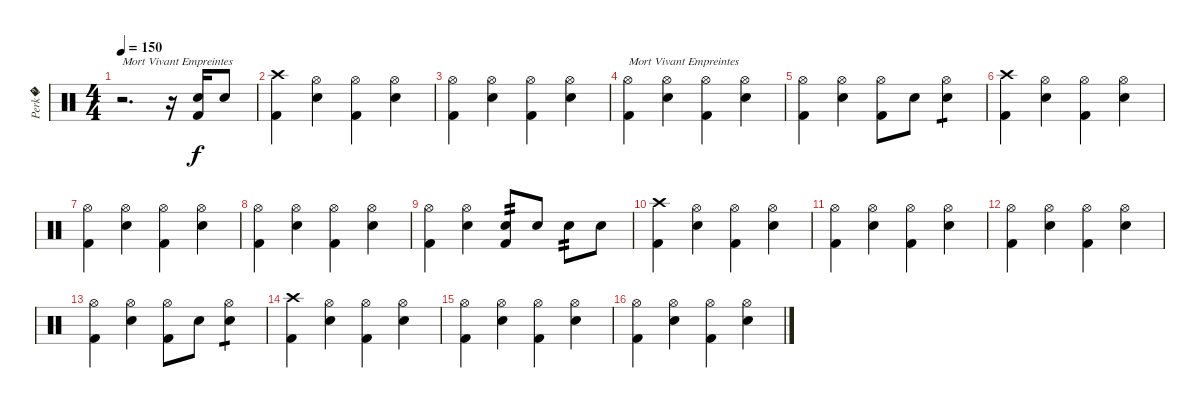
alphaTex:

\track ("Perk�" "Perk�") {instrument percussion}
\staff {score}
\articulation defaults
\ts (4 4)
\tempo 150
\clef neutral
\ks c
r.2{d txt "Mort Vivant Empreintes" dy f} r.16 ("Snare (hit) 2" "Kick (hit) 2").16 "Electric Snare (hit)".8 |
("Crash high (hit)" "Kick (hit) 2").4 ("Hi-Hat (open)" "Snare (hit) 2").4 ("Hi-Hat (open)" "Kick (hit) 2").4 ("Hi-Hat (open)" "Snare (hit) 2").4 |
("Hi-Hat (open)" "Kick (hit) 2").4 ("Hi-Hat (open)" "Snare (hit) 2").4 ("Hi-Hat (open)" "Kick (hit) 2").4 ("Hi-Hat (open)" "Snare (hit) 2").4 |
("Hi-Hat (open)" "Kick (hit) 2").4{txt "Mort Vivant Empreintes"} ("Hi-Hat (open)" "Snare (hit) 2").4 ("Hi-Hat (open)" "Kick (hit) 2").4 ("Hi-Hat (open)" "Snare (hit) 2").4 |
("Hi-Hat (open)" "Kick (hit) 2").4 ("Hi-Hat (open)" "Snare (hit) 2").4 ("Hi-Hat (open)" "Kick (hit) 2").8 "Snare (hit) 2".8 ("Hi-Hat (open)" "Snare (hit) 2").4{tp 1} |
("Crash high (hit)" "Kick (hit) 2").4 ("Hi-Hat (open)" "Snare (hit) 2").4 ("Hi-Hat (open)" "Kick (hit) 2").4 ("Hi-Hat (open)" "Snare (hit) 2").4 |
("Hi-Hat (open)" "Kick (hit) 2").4 ("Hi-Hat (open)" "Snare (hit) 2").4 ("Hi-Hat (open)" "Kick (hit) 2").4 ("Hi-Hat (open)" "Snare (hit) 2").4 |
("Hi-Hat (open)" "Kick (hit) 2").4 ("Hi-Hat (open)" "Snare (hit) 2").4 ("Hi-Hat (open)" "Kick (hit) 2").4 ("Hi-Hat (open)" "Snare (hit) 2").4 |
("Hi-Hat (open)" "Kick (hit) 2").4 ("Hi-Hat (open)" "Snare (hit) 2").4 ("Snare (hit) 2" "Kick (hit) 2").8{tp 2} "Snare (hit) 2".8 "Snare (hit) 2".8{tp 2} "Snare (hit) 2".8 |
("Crash high (hit)" "Kick (hit) 2").4 ("Hi-Hat (open)" "Snare (hit) 2").4 ("Hi-Hat (open)" "Kick (hit) 2").4 ("Hi-Hat (open)" "Snare (hit) 2").4 |
("Hi-Hat (open)" "Kick (hit) 2").4 ("Hi-Hat (open)" "Snare (hit) 2").4 ("Hi-Hat (open)" "Kick (hit) 2").4 ("Hi-Hat (open)" "Snare (hit) 2").4 |
("Hi-Hat (open)" "Kick (hit) 2").4 ("Hi-Hat (open)" "Snare (hit) 2").4 ("Hi-Hat (open)" "Kick (hit) 2").4 ("Hi-Hat (open)" "Snare (hit) 2").4 |
("Hi-Hat (open)" "Kick (hit) 2").4 ("Hi-Hat (open)" "Snare (hit) 2").4 ("Hi-Hat (open)" "Kick (hit) 2").8 "Snare (hit) 2".8 ("Hi-Hat (open)" "Snare (hit) 2").4{tp 1} |
("Crash high (hit)" "Kick (hit) 2").4 ("Hi-Hat (open)" "Snare (hit) 2").4 ("Hi-Hat (open)" "Kick (hit) 2").4 ("Hi-Hat (open)" "Snare (hit) 2").4 |
("Hi-Hat (open)" "Kick (hit) 2").4 ("Hi-Hat (open)" "Snare (hit) 2").4 ("Hi-Hat (open)" "Kick (hit) 2").4 ("Hi-Hat (open)" "Snare (hit) 2").4 |
("Hi-Hat (open)" "Kick (hit) 2").4 ("Hi-Hat (open)" "Snare (hit) 2").4 ("Hi-Hat (open)" "Kick (hit) 2").4 ("Hi-Hat (open)" "Snare (hit) 2").4
